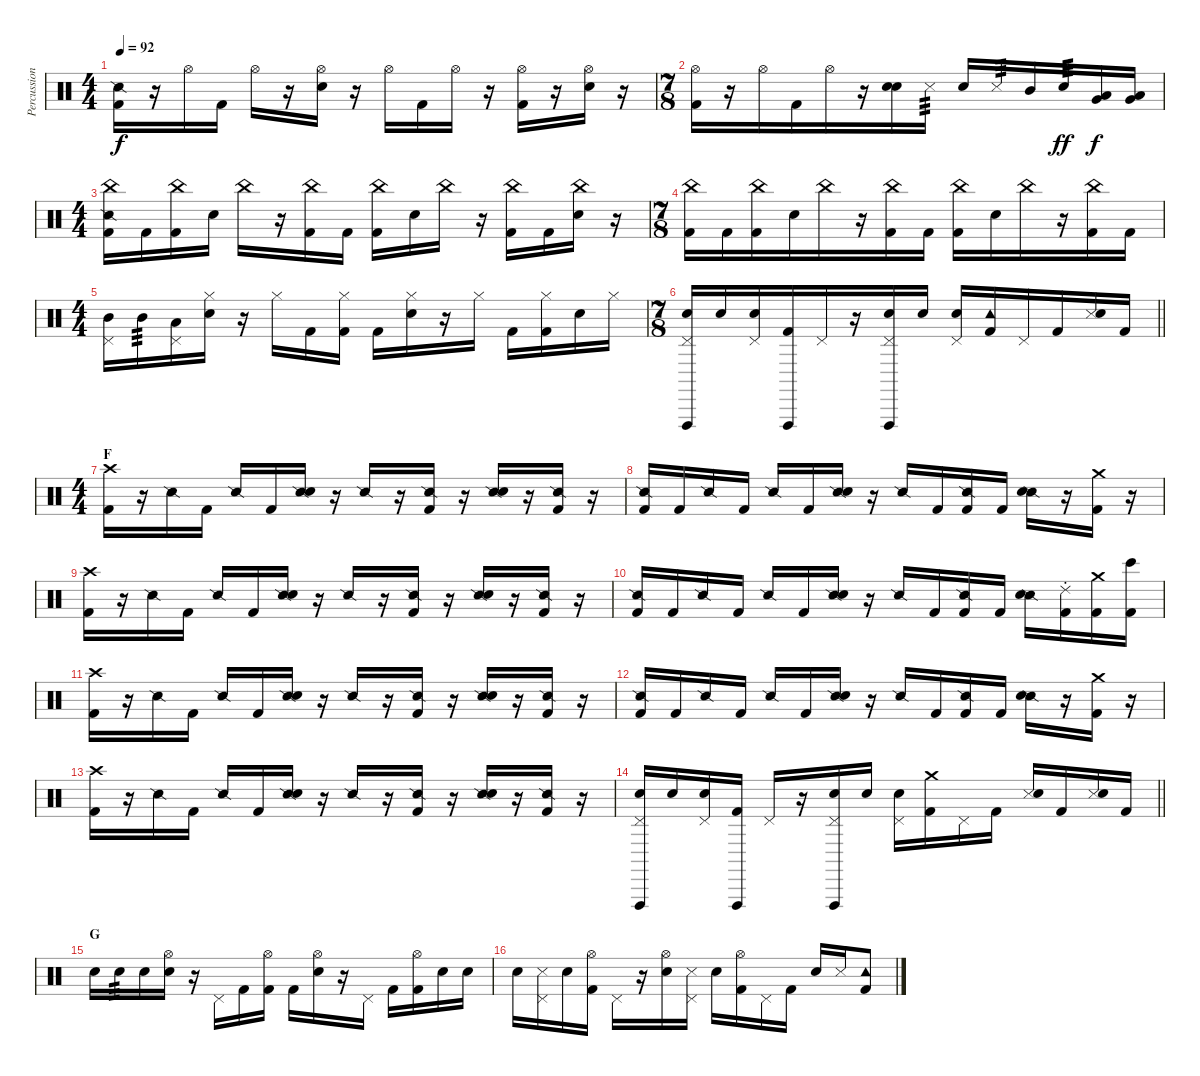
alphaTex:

\track ("Percussion" "Percussion") {instrument percussion}
\staff {score}
\articulation defaults
\ts (4 4)
\tempo 92
\clef neutral
\ks c
("Snare (side stick) 2" "Kick (hit) 2").16{dy f} r.16 "Hi-Hat (open)".16 "Kick (hit) 2".16 "Hi-Hat (open)".16 r.16 ("Hi-Hat (open)" "Snare (hit) 2").16 r.16 "Hi-Hat (open)".16 "Kick (hit) 2".16 "Hi-Hat (open)".16 r.16 ("Hi-Hat (open)" "Kick (hit) 2").16 r.16 ("Hi-Hat (open)" "Snare (hit) 2").16 r.16 |
\ts (7 8)
("Hi-Hat (open)" "Kick (hit) 2").16 r.16 "Hi-Hat (open)".16 "Kick (hit) 2".16 "Hi-Hat (open)".16 r.16 ("Snare (hit)" "Snare (hit) 2").16 "Metronome (hit)".16{tp 3} "Snare (hit) 2".16 "Metronome (hit)".16{tp 3} "Mid Tom (hit)".16 "Snare (hit) 2".16{tp 3 dy ff} ("Low Tom (hit)" "Very Low Tom (hit)").16{bu 120 dy f} ("Low Tom (hit)" "Very Low Tom (hit)").16{bu 120} |
\ts (4 4)
("China (hit)" "Snare (side stick) 2" "Kick (hit) 2").16 "Kick (hit) 2".16 ("China (hit)" "Kick (hit) 2").16 "Snare (hit) 2".16 "China (hit)".16 r.16 ("China (hit)" "Kick (hit) 2").16 "Kick (hit) 2".16 ("China (hit)" "Kick (hit) 2").16 "Snare (hit) 2".16 "China (hit)".16 r.16 ("China (hit)" "Kick (hit) 2").16 "Kick (hit) 2".16 ("China (hit)" "Snare (hit) 2").16 r.16 |
\ts (7 8)
("China (hit)" "Kick (hit) 2").16 "Kick (hit) 2".16 ("China (hit)" "Kick (hit) 2").16 "Snare (hit) 2".16 "China (hit)".16 r.16 ("China (hit)" "Kick (hit) 2").16 "Kick (hit) 2".16 ("China (hit)" "Kick (hit) 2").16 "Snare (hit) 2".16 "China (hit)".16 r.16 ("China (hit)" "Kick (hit) 2").16 "Kick (hit) 2".16 |
\ts (4 4)
("Pedal Hi-Hat (hit)" "Mid Tom (hit)").16 "Mid Tom (hit)".16{tp 3} ("Pedal Hi-Hat (hit)" "Low Tom (hit)").16 ("Hi-Hat (closed)" "Snare (hit) 2").16 r.16 "Hi-Hat (closed)".16 "Kick (hit) 2".16 ("Hi-Hat (closed)" "Kick (hit) 2").16 "Kick (hit) 2".16 ("Hi-Hat (closed)" "Snare (hit) 2").16 r.16 "Hi-Hat (closed)".16 "Kick (hit) 2".16 ("Hi-Hat (closed)" "Kick (hit) 2").16 "Snare (hit) 2".16 "Hi-Hat (closed)".16 |
\ts (7 8)
\barLineRight lightlight
("Vibraslap (hit)" "Pedal Hi-Hat (hit)" "Snare (hit) 2").16 "Snare (hit) 2".16 ("Pedal Hi-Hat (hit)" "Snare (hit) 2").16 ("Vibraslap (hit)" "Kick (hit) 2").16 "Pedal Hi-Hat (hit)".16 r.16 ("Vibraslap (hit)" "Pedal Hi-Hat (hit)" "Snare (hit) 2").16 "Snare (hit) 2".16 ("Pedal Hi-Hat (hit)" "Snare (hit) 2").16 ("Tambourine (hit)" "Kick (hit) 2").16 "Pedal Hi-Hat (hit)".16 "Kick (hit) 2".16 ("Metronome (hit)" "Snare (hit) 2").16{bu 120} "Kick (hit) 2".16 |
\ts (4 4)
\section ("" "F")
("Crash high (hit)" "Kick (hit) 2").16 r.16 "Snare (side stick) 2".16 "Kick (hit) 2".16 "Snare (side stick) 2".16 "Kick (hit) 2".16 ("Snare (side stick) 2" "Snare (hit) 2").16 r.16 "Snare (side stick) 2".16 r.16 ("Snare (side stick) 2" "Kick (hit) 2").16 r.16 ("Snare (side stick) 2" "Snare (hit) 2").16 r.16 ("Snare (side stick) 2" "Kick (hit) 2").16 r.16 |
("Snare (side stick) 2" "Kick (hit) 2").16 "Kick (hit) 2".16 "Snare (side stick) 2".16 "Kick (hit) 2".16 "Snare (side stick) 2".16 "Kick (hit) 2".16 ("Snare (side stick) 2" "Snare (hit) 2").16 r.16 "Snare (side stick) 2".16 "Kick (hit) 2".16 ("Snare (side stick) 2" "Kick (hit) 2").16 "Kick (hit) 2".16 ("Snare (side stick) 2" "Snare (hit) 2").16 r.16 ("Crash medium (hit)" "Kick (hit) 2").16 r.16 |
("Crash high (hit)" "Kick (hit) 2").16 r.16 "Snare (side stick) 2".16 "Kick (hit) 2".16 "Snare (side stick) 2".16 "Kick (hit) 2".16 ("Snare (side stick) 2" "Snare (hit) 2").16 r.16 "Snare (side stick) 2".16 r.16 ("Snare (side stick) 2" "Kick (hit) 2").16 r.16 ("Snare (side stick) 2" "Snare (hit) 2").16 r.16 ("Snare (side stick) 2" "Kick (hit) 2").16 r.16 |
("Snare (side stick) 2" "Kick (hit) 2").16 "Kick (hit) 2".16 "Snare (side stick) 2".16 "Kick (hit) 2".16 "Snare (side stick) 2".16 "Kick (hit) 2".16 ("Snare (side stick) 2" "Snare (hit) 2").16 r.16 "Snare (side stick) 2".16 "Kick (hit) 2".16 ("Snare (side stick) 2" "Kick (hit) 2").16 "Kick (hit) 2".16 ("Snare (side stick) 2" "Snare (hit) 2").16 ("Ride (choke) 2" "Kick (hit) 2").16 ("Crash medium (hit)" "Kick (hit) 2").16 ("Bongo High (hit)" "Kick (hit) 2").16 |
("Crash high (hit)" "Kick (hit) 2").16 r.16 "Snare (side stick) 2".16 "Kick (hit) 2".16 "Snare (side stick) 2".16 "Kick (hit) 2".16 ("Snare (side stick) 2" "Snare (hit) 2").16 r.16 "Snare (side stick) 2".16 r.16 ("Snare (side stick) 2" "Kick (hit) 2").16 r.16 ("Snare (side stick) 2" "Snare (hit) 2").16 r.16 ("Snare (side stick) 2" "Kick (hit) 2").16 r.16 |
("Snare (side stick) 2" "Kick (hit) 2").16 "Kick (hit) 2".16 "Snare (side stick) 2".16 "Kick (hit) 2".16 "Snare (side stick) 2".16 "Kick (hit) 2".16 ("Snare (side stick) 2" "Snare (hit) 2").16 r.16 "Snare (side stick) 2".16 "Kick (hit) 2".16 ("Snare (side stick) 2" "Kick (hit) 2").16 "Kick (hit) 2".16 ("Snare (side stick) 2" "Snare (hit) 2").16 r.16 ("Crash medium (hit)" "Kick (hit) 2").16 r.16 |
("Crash high (hit)" "Kick (hit) 2").16 r.16 "Snare (side stick) 2".16 "Kick (hit) 2".16 "Snare (side stick) 2".16 "Kick (hit) 2".16 ("Snare (side stick) 2" "Snare (hit) 2").16 r.16 "Snare (side stick) 2".16 r.16 ("Snare (side stick) 2" "Kick (hit) 2").16 r.16 ("Snare (side stick) 2" "Snare (hit) 2").16 r.16 ("Snare (side stick) 2" "Kick (hit) 2").16 r.16 |
\barLineRight lightlight
("Vibraslap (hit)" "Pedal Hi-Hat (hit)" "Snare (hit) 2").16 "Snare (hit) 2".16 ("Pedal Hi-Hat (hit)" "Snare (hit) 2").16 ("Vibraslap (hit)" "Kick (hit) 2").16 "Pedal Hi-Hat (hit)".16 r.16 ("Vibraslap (hit)" "Pedal Hi-Hat (hit)" "Snare (hit) 2").16 "Snare (hit) 2".16 ("Pedal Hi-Hat (hit)" "Snare (hit) 2").16 ("Crash medium (hit)" "Kick (hit) 2").16 "Pedal Hi-Hat (hit)".16 "Kick (hit) 2".16 ("Metronome (hit)" "Snare (hit) 2").16{bu 120} "Kick (hit) 2".16 ("Metronome (hit)" "Snare (hit) 2").16{bu 120} "Kick (hit) 2".16 |
\section ("" "G")
"Snare (hit) 2".16 "Snare (hit) 2".16{tp 3} "Snare (hit) 2".16 ("Hi-Hat (open)" "Snare (hit) 2").16 r.16 "Pedal Hi-Hat (hit)".16 "Kick (hit) 2".16 ("Hi-Hat (open)" "Kick (hit) 2").16 "Kick (hit) 2".16 ("Hi-Hat (open)" "Snare (hit) 2").16 r.16 "Pedal Hi-Hat (hit)".16 "Kick (hit) 2".16 ("Hi-Hat (open)" "Kick (hit) 2").16 "Snare (hit) 2".16 "Snare (hit)".16 |
"Snare (hit) 2".16 ("Pedal Hi-Hat (hit)" "Metronome (hit)").16 "Snare (hit) 2".16 ("Hi-Hat (open)" "Kick (hit) 2").16 "Pedal Hi-Hat (hit)".16 r.16 ("Hi-Hat (open)" "Snare (hit) 2").16 ("Pedal Hi-Hat (hit)" "Metronome (hit)").16 "Snare (hit) 2".16 ("Hi-Hat (open)" "Kick (hit) 2").16 "Pedal Hi-Hat (hit)".16 "Kick (hit) 2".16 "Snare (hit) 2".16 "Metronome (hit)".16 ("Tambourine (hit)" "Kick (hit) 2").8
